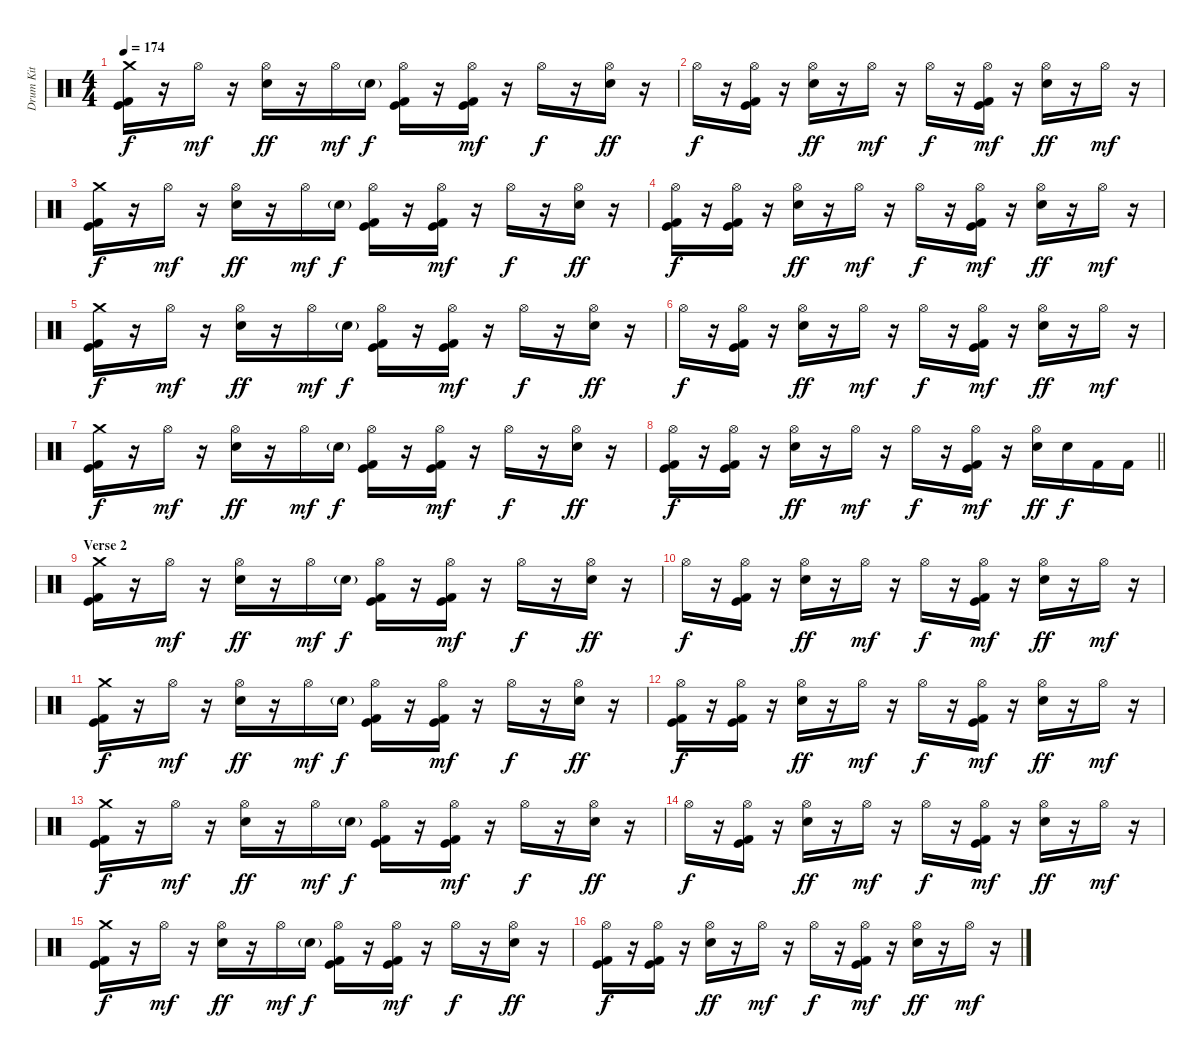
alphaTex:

\track ("Drum Kit" "Drum Kit") {instrument percussion}
\staff {score}
\articulation defaults
\ts (4 4)
\tempo 174
\clef neutral
\ks c
("Crash medium (hit)" "Kick (hit)" "Kick (hit) 2").16{dy f} r.16 "Hi-Hat (open)".16{dy mf} r.16 ("Hi-Hat (open)" "Electric Snare (hit)").16{dy ff} r.16 "Hi-Hat (open)".16{dy mf} "Electric Snare (hit)"{g}.16{dy f} ("Hi-Hat (open)" "Kick (hit)" "Kick (hit) 2").16 r.16 ("Hi-Hat (open)" "Kick (hit)" "Kick (hit) 2").16{dy mf} r.16 "Hi-Hat (open)".16{dy f} r.16 ("Hi-Hat (open)" "Electric Snare (hit)").16{dy ff} r.16 |
"Hi-Hat (open)".16{dy f} r.16 ("Hi-Hat (open)" "Kick (hit)" "Kick (hit) 2").16 r.16 ("Hi-Hat (open)" "Electric Snare (hit)").16{dy ff} r.16 "Hi-Hat (open)".16{dy mf} r.16 "Hi-Hat (open)".16{dy f} r.16 ("Hi-Hat (open)" "Kick (hit)" "Kick (hit) 2").16{dy mf} r.16 ("Hi-Hat (open)" "Electric Snare (hit)").16{dy ff} r.16 "Hi-Hat (open)".16{dy mf} r.16 |
("Crash medium (hit)" "Kick (hit)" "Kick (hit) 2").16{dy f} r.16 "Hi-Hat (open)".16{dy mf} r.16 ("Hi-Hat (open)" "Electric Snare (hit)").16{dy ff} r.16 "Hi-Hat (open)".16{dy mf} "Electric Snare (hit)"{g}.16{dy f} ("Hi-Hat (open)" "Kick (hit)" "Kick (hit) 2").16 r.16 ("Hi-Hat (open)" "Kick (hit)" "Kick (hit) 2").16{dy mf} r.16 "Hi-Hat (open)".16{dy f} r.16 ("Hi-Hat (open)" "Electric Snare (hit)").16{dy ff} r.16 |
("Hi-Hat (open)" "Kick (hit)" "Kick (hit) 2").16{dy f} r.16 ("Hi-Hat (open)" "Kick (hit)" "Kick (hit) 2").16 r.16 ("Hi-Hat (open)" "Electric Snare (hit)").16{dy ff} r.16 "Hi-Hat (open)".16{dy mf} r.16 "Hi-Hat (open)".16{dy f} r.16 ("Hi-Hat (open)" "Kick (hit)" "Kick (hit) 2").16{dy mf} r.16 ("Hi-Hat (open)" "Electric Snare (hit)").16{dy ff} r.16 "Hi-Hat (open)".16{dy mf} r.16 |
("Crash medium (hit)" "Kick (hit)" "Kick (hit) 2").16{dy f} r.16 "Hi-Hat (open)".16{dy mf} r.16 ("Hi-Hat (open)" "Electric Snare (hit)").16{dy ff} r.16 "Hi-Hat (open)".16{dy mf} "Electric Snare (hit)"{g}.16{dy f} ("Hi-Hat (open)" "Kick (hit)" "Kick (hit) 2").16 r.16 ("Hi-Hat (open)" "Kick (hit)" "Kick (hit) 2").16{dy mf} r.16 "Hi-Hat (open)".16{dy f} r.16 ("Hi-Hat (open)" "Electric Snare (hit)").16{dy ff} r.16 |
"Hi-Hat (open)".16{dy f} r.16 ("Hi-Hat (open)" "Kick (hit)" "Kick (hit) 2").16 r.16 ("Hi-Hat (open)" "Electric Snare (hit)").16{dy ff} r.16 "Hi-Hat (open)".16{dy mf} r.16 "Hi-Hat (open)".16{dy f} r.16 ("Hi-Hat (open)" "Kick (hit)" "Kick (hit) 2").16{dy mf} r.16 ("Hi-Hat (open)" "Electric Snare (hit)").16{dy ff} r.16 "Hi-Hat (open)".16{dy mf} r.16 |
("Crash medium (hit)" "Kick (hit)" "Kick (hit) 2").16{dy f} r.16 "Hi-Hat (open)".16{dy mf} r.16 ("Hi-Hat (open)" "Electric Snare (hit)").16{dy ff} r.16 "Hi-Hat (open)".16{dy mf} "Electric Snare (hit)"{g}.16{dy f} ("Hi-Hat (open)" "Kick (hit)" "Kick (hit) 2").16 r.16 ("Hi-Hat (open)" "Kick (hit)" "Kick (hit) 2").16{dy mf} r.16 "Hi-Hat (open)".16{dy f} r.16 ("Hi-Hat (open)" "Electric Snare (hit)").16{dy ff} r.16 |
\barLineRight lightlight
("Hi-Hat (open)" "Kick (hit)" "Kick (hit) 2").16{dy f} r.16 ("Hi-Hat (open)" "Kick (hit)" "Kick (hit) 2").16 r.16 ("Hi-Hat (open)" "Electric Snare (hit)").16{dy ff} r.16 "Hi-Hat (open)".16{dy mf} r.16 "Hi-Hat (open)".16{dy f} r.16 ("Hi-Hat (open)" "Kick (hit)" "Kick (hit) 2").16{dy mf} r.16 ("Hi-Hat (open)" "Electric Snare (hit)").16{dy ff} "Electric Snare (hit)".16{dy f} "Kick (hit) 2".16 "Kick (hit) 2".16 |
\section ("" "Verse 2")
("Crash medium (hit)" "Kick (hit)" "Kick (hit) 2").16 r.16 "Hi-Hat (open)".16{dy mf} r.16 ("Hi-Hat (open)" "Electric Snare (hit)").16{dy ff} r.16 "Hi-Hat (open)".16{dy mf} "Electric Snare (hit)"{g}.16{dy f} ("Hi-Hat (open)" "Kick (hit)" "Kick (hit) 2").16 r.16 ("Hi-Hat (open)" "Kick (hit)" "Kick (hit) 2").16{dy mf} r.16 "Hi-Hat (open)".16{dy f} r.16 ("Hi-Hat (open)" "Electric Snare (hit)").16{dy ff} r.16 |
"Hi-Hat (open)".16{dy f} r.16 ("Hi-Hat (open)" "Kick (hit)" "Kick (hit) 2").16 r.16 ("Hi-Hat (open)" "Electric Snare (hit)").16{dy ff} r.16 "Hi-Hat (open)".16{dy mf} r.16 "Hi-Hat (open)".16{dy f} r.16 ("Hi-Hat (open)" "Kick (hit)" "Kick (hit) 2").16{dy mf} r.16 ("Hi-Hat (open)" "Electric Snare (hit)").16{dy ff} r.16 "Hi-Hat (open)".16{dy mf} r.16 |
("Crash medium (hit)" "Kick (hit)" "Kick (hit) 2").16{dy f} r.16 "Hi-Hat (open)".16{dy mf} r.16 ("Hi-Hat (open)" "Electric Snare (hit)").16{dy ff} r.16 "Hi-Hat (open)".16{dy mf} "Electric Snare (hit)"{g}.16{dy f} ("Hi-Hat (open)" "Kick (hit)" "Kick (hit) 2").16 r.16 ("Hi-Hat (open)" "Kick (hit)" "Kick (hit) 2").16{dy mf} r.16 "Hi-Hat (open)".16{dy f} r.16 ("Hi-Hat (open)" "Electric Snare (hit)").16{dy ff} r.16 |
("Hi-Hat (open)" "Kick (hit)" "Kick (hit) 2").16{dy f} r.16 ("Hi-Hat (open)" "Kick (hit)" "Kick (hit) 2").16 r.16 ("Hi-Hat (open)" "Electric Snare (hit)").16{dy ff} r.16 "Hi-Hat (open)".16{dy mf} r.16 "Hi-Hat (open)".16{dy f} r.16 ("Hi-Hat (open)" "Kick (hit)" "Kick (hit) 2").16{dy mf} r.16 ("Hi-Hat (open)" "Electric Snare (hit)").16{dy ff} r.16 "Hi-Hat (open)".16{dy mf} r.16 |
("Crash medium (hit)" "Kick (hit)" "Kick (hit) 2").16{dy f} r.16 "Hi-Hat (open)".16{dy mf} r.16 ("Hi-Hat (open)" "Electric Snare (hit)").16{dy ff} r.16 "Hi-Hat (open)".16{dy mf} "Electric Snare (hit)"{g}.16{dy f} ("Hi-Hat (open)" "Kick (hit)" "Kick (hit) 2").16 r.16 ("Hi-Hat (open)" "Kick (hit)" "Kick (hit) 2").16{dy mf} r.16 "Hi-Hat (open)".16{dy f} r.16 ("Hi-Hat (open)" "Electric Snare (hit)").16{dy ff} r.16 |
"Hi-Hat (open)".16{dy f} r.16 ("Hi-Hat (open)" "Kick (hit)" "Kick (hit) 2").16 r.16 ("Hi-Hat (open)" "Electric Snare (hit)").16{dy ff} r.16 "Hi-Hat (open)".16{dy mf} r.16 "Hi-Hat (open)".16{dy f} r.16 ("Hi-Hat (open)" "Kick (hit)" "Kick (hit) 2").16{dy mf} r.16 ("Hi-Hat (open)" "Electric Snare (hit)").16{dy ff} r.16 "Hi-Hat (open)".16{dy mf} r.16 |
("Crash medium (hit)" "Kick (hit)" "Kick (hit) 2").16{dy f} r.16 "Hi-Hat (open)".16{dy mf} r.16 ("Hi-Hat (open)" "Electric Snare (hit)").16{dy ff} r.16 "Hi-Hat (open)".16{dy mf} "Electric Snare (hit)"{g}.16{dy f} ("Hi-Hat (open)" "Kick (hit)" "Kick (hit) 2").16 r.16 ("Hi-Hat (open)" "Kick (hit)" "Kick (hit) 2").16{dy mf} r.16 "Hi-Hat (open)".16{dy f} r.16 ("Hi-Hat (open)" "Electric Snare (hit)").16{dy ff} r.16 |
("Hi-Hat (open)" "Kick (hit)" "Kick (hit) 2").16{dy f} r.16 ("Hi-Hat (open)" "Kick (hit)" "Kick (hit) 2").16 r.16 ("Hi-Hat (open)" "Electric Snare (hit)").16{dy ff} r.16 "Hi-Hat (open)".16{dy mf} r.16 "Hi-Hat (open)".16{dy f} r.16 ("Hi-Hat (open)" "Kick (hit)" "Kick (hit) 2").16{dy mf} r.16 ("Hi-Hat (open)" "Electric Snare (hit)").16{dy ff} r.16 "Hi-Hat (open)".16{dy mf} r.16
